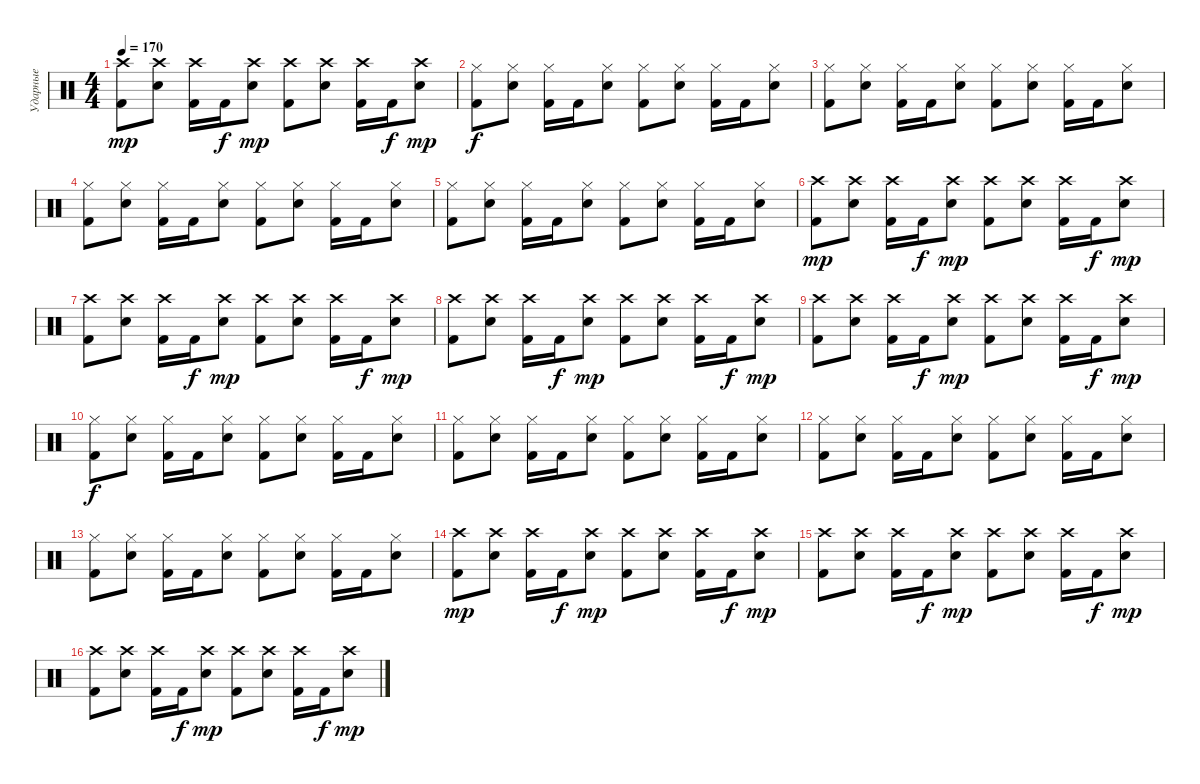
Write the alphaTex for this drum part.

\track ("Ударные" "Ударные") {instrument percussion}
\staff {score}
\articulation defaults
\ts (4 4)
\tempo 170
\clef neutral
\ks c
("Crash high (hit)" "Kick (hit) 2").8{dy mp} ("Crash high (hit)" "Electric Snare (hit)").8 ("Crash high (hit)" "Kick (hit) 2").16 "Kick (hit) 2".16{dy f} ("Crash high (hit)" "Electric Snare (hit)").8{dy mp} ("Crash high (hit)" "Kick (hit) 2").8 ("Crash high (hit)" "Electric Snare (hit)").8 ("Crash high (hit)" "Kick (hit) 2").16 "Kick (hit) 2".16{dy f} ("Crash high (hit)" "Electric Snare (hit)").8{dy mp} |
("Hi-Hat (closed)" "Kick (hit) 2").8{dy f} ("Hi-Hat (closed)" "Electric Snare (hit)").8 ("Hi-Hat (closed)" "Kick (hit) 2").16 "Kick (hit) 2".16 ("Hi-Hat (closed)" "Electric Snare (hit)").8 ("Hi-Hat (closed)" "Kick (hit) 2").8 ("Hi-Hat (closed)" "Electric Snare (hit)").8 ("Hi-Hat (closed)" "Kick (hit) 2").16 "Kick (hit) 2".16 ("Hi-Hat (closed)" "Electric Snare (hit)").8 |
("Hi-Hat (closed)" "Kick (hit) 2").8 ("Hi-Hat (closed)" "Electric Snare (hit)").8 ("Hi-Hat (closed)" "Kick (hit) 2").16 "Kick (hit) 2".16 ("Hi-Hat (closed)" "Electric Snare (hit)").8 ("Hi-Hat (closed)" "Kick (hit) 2").8 ("Hi-Hat (closed)" "Electric Snare (hit)").8 ("Hi-Hat (closed)" "Kick (hit) 2").16 "Kick (hit) 2".16 ("Hi-Hat (closed)" "Electric Snare (hit)").8 |
("Hi-Hat (closed)" "Kick (hit) 2").8 ("Hi-Hat (closed)" "Electric Snare (hit)").8 ("Hi-Hat (closed)" "Kick (hit) 2").16 "Kick (hit) 2".16 ("Hi-Hat (closed)" "Electric Snare (hit)").8 ("Hi-Hat (closed)" "Kick (hit) 2").8 ("Hi-Hat (closed)" "Electric Snare (hit)").8 ("Hi-Hat (closed)" "Kick (hit) 2").16 "Kick (hit) 2".16 ("Hi-Hat (closed)" "Electric Snare (hit)").8 |
("Hi-Hat (closed)" "Kick (hit) 2").8 ("Hi-Hat (closed)" "Electric Snare (hit)").8 ("Hi-Hat (closed)" "Kick (hit) 2").16 "Kick (hit) 2".16 ("Hi-Hat (closed)" "Electric Snare (hit)").8 ("Hi-Hat (closed)" "Kick (hit) 2").8 ("Hi-Hat (closed)" "Electric Snare (hit)").8 ("Hi-Hat (closed)" "Kick (hit) 2").16 "Kick (hit) 2".16 ("Hi-Hat (closed)" "Electric Snare (hit)").8 |
("Crash high (hit)" "Kick (hit) 2").8{dy mp} ("Crash high (hit)" "Electric Snare (hit)").8 ("Crash high (hit)" "Kick (hit) 2").16 "Kick (hit) 2".16{dy f} ("Crash high (hit)" "Electric Snare (hit)").8{dy mp} ("Crash high (hit)" "Kick (hit) 2").8 ("Crash high (hit)" "Electric Snare (hit)").8 ("Crash high (hit)" "Kick (hit) 2").16 "Kick (hit) 2".16{dy f} ("Crash high (hit)" "Electric Snare (hit)").8{dy mp} |
("Crash high (hit)" "Kick (hit) 2").8 ("Crash high (hit)" "Electric Snare (hit)").8 ("Crash high (hit)" "Kick (hit) 2").16 "Kick (hit) 2".16{dy f} ("Crash high (hit)" "Electric Snare (hit)").8{dy mp} ("Crash high (hit)" "Kick (hit) 2").8 ("Crash high (hit)" "Electric Snare (hit)").8 ("Crash high (hit)" "Kick (hit) 2").16 "Kick (hit) 2".16{dy f} ("Crash high (hit)" "Electric Snare (hit)").8{dy mp} |
("Crash high (hit)" "Kick (hit) 2").8 ("Crash high (hit)" "Electric Snare (hit)").8 ("Crash high (hit)" "Kick (hit) 2").16 "Kick (hit) 2".16{dy f} ("Crash high (hit)" "Electric Snare (hit)").8{dy mp} ("Crash high (hit)" "Kick (hit) 2").8 ("Crash high (hit)" "Electric Snare (hit)").8 ("Crash high (hit)" "Kick (hit) 2").16 "Kick (hit) 2".16{dy f} ("Crash high (hit)" "Electric Snare (hit)").8{dy mp} |
("Crash high (hit)" "Kick (hit) 2").8 ("Crash high (hit)" "Electric Snare (hit)").8 ("Crash high (hit)" "Kick (hit) 2").16 "Kick (hit) 2".16{dy f} ("Crash high (hit)" "Electric Snare (hit)").8{dy mp} ("Crash high (hit)" "Kick (hit) 2").8 ("Crash high (hit)" "Electric Snare (hit)").8 ("Crash high (hit)" "Kick (hit) 2").16 "Kick (hit) 2".16{dy f} ("Crash high (hit)" "Electric Snare (hit)").8{dy mp} |
("Hi-Hat (closed)" "Kick (hit) 2").8{dy f} ("Hi-Hat (closed)" "Electric Snare (hit)").8 ("Hi-Hat (closed)" "Kick (hit) 2").16 "Kick (hit) 2".16 ("Hi-Hat (closed)" "Electric Snare (hit)").8 ("Hi-Hat (closed)" "Kick (hit) 2").8 ("Hi-Hat (closed)" "Electric Snare (hit)").8 ("Hi-Hat (closed)" "Kick (hit) 2").16 "Kick (hit) 2".16 ("Hi-Hat (closed)" "Electric Snare (hit)").8 |
("Hi-Hat (closed)" "Kick (hit) 2").8 ("Hi-Hat (closed)" "Electric Snare (hit)").8 ("Hi-Hat (closed)" "Kick (hit) 2").16 "Kick (hit) 2".16 ("Hi-Hat (closed)" "Electric Snare (hit)").8 ("Hi-Hat (closed)" "Kick (hit) 2").8 ("Hi-Hat (closed)" "Electric Snare (hit)").8 ("Hi-Hat (closed)" "Kick (hit) 2").16 "Kick (hit) 2".16 ("Hi-Hat (closed)" "Electric Snare (hit)").8 |
("Hi-Hat (closed)" "Kick (hit) 2").8 ("Hi-Hat (closed)" "Electric Snare (hit)").8 ("Hi-Hat (closed)" "Kick (hit) 2").16 "Kick (hit) 2".16 ("Hi-Hat (closed)" "Electric Snare (hit)").8 ("Hi-Hat (closed)" "Kick (hit) 2").8 ("Hi-Hat (closed)" "Electric Snare (hit)").8 ("Hi-Hat (closed)" "Kick (hit) 2").16 "Kick (hit) 2".16 ("Hi-Hat (closed)" "Electric Snare (hit)").8 |
("Hi-Hat (closed)" "Kick (hit) 2").8 ("Hi-Hat (closed)" "Electric Snare (hit)").8 ("Hi-Hat (closed)" "Kick (hit) 2").16 "Kick (hit) 2".16 ("Hi-Hat (closed)" "Electric Snare (hit)").8 ("Hi-Hat (closed)" "Kick (hit) 2").8 ("Hi-Hat (closed)" "Electric Snare (hit)").8 ("Hi-Hat (closed)" "Kick (hit) 2").16 "Kick (hit) 2".16 ("Hi-Hat (closed)" "Electric Snare (hit)").8 |
("Crash high (hit)" "Kick (hit) 2").8{dy mp} ("Crash high (hit)" "Electric Snare (hit)").8 ("Crash high (hit)" "Kick (hit) 2").16 "Kick (hit) 2".16{dy f} ("Crash high (hit)" "Electric Snare (hit)").8{dy mp} ("Crash high (hit)" "Kick (hit) 2").8 ("Crash high (hit)" "Electric Snare (hit)").8 ("Crash high (hit)" "Kick (hit) 2").16 "Kick (hit) 2".16{dy f} ("Crash high (hit)" "Electric Snare (hit)").8{dy mp} |
("Crash high (hit)" "Kick (hit) 2").8 ("Crash high (hit)" "Electric Snare (hit)").8 ("Crash high (hit)" "Kick (hit) 2").16 "Kick (hit) 2".16{dy f} ("Crash high (hit)" "Electric Snare (hit)").8{dy mp} ("Crash high (hit)" "Kick (hit) 2").8 ("Crash high (hit)" "Electric Snare (hit)").8 ("Crash high (hit)" "Kick (hit) 2").16 "Kick (hit) 2".16{dy f} ("Crash high (hit)" "Electric Snare (hit)").8{dy mp} |
("Crash high (hit)" "Kick (hit) 2").8 ("Crash high (hit)" "Electric Snare (hit)").8 ("Crash high (hit)" "Kick (hit) 2").16 "Kick (hit) 2".16{dy f} ("Crash high (hit)" "Electric Snare (hit)").8{dy mp} ("Crash high (hit)" "Kick (hit) 2").8 ("Crash high (hit)" "Electric Snare (hit)").8 ("Crash high (hit)" "Kick (hit) 2").16 "Kick (hit) 2".16{dy f} ("Crash high (hit)" "Electric Snare (hit)").8{dy mp}
